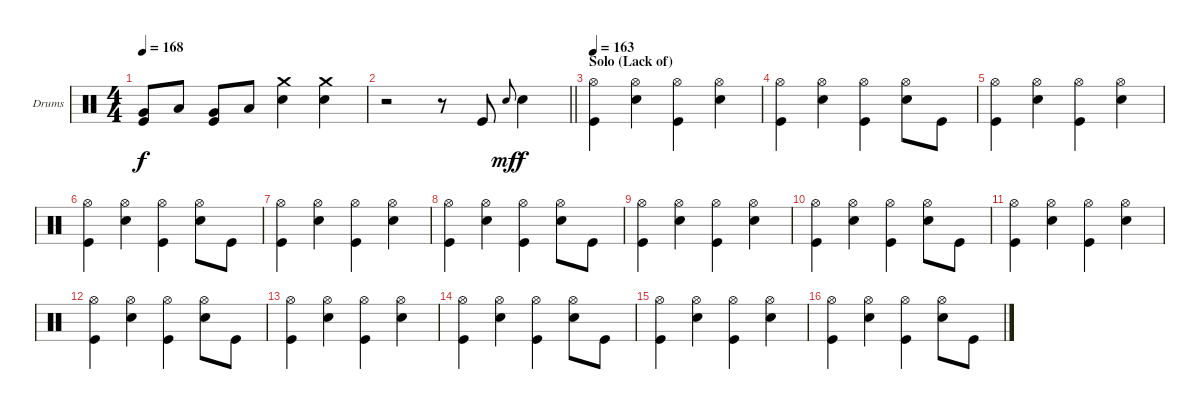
\bracketExtendMode groupsimilarinstruments
\firstSystemTrackNameOrientation horizontal
\otherSystemsTrackNameOrientation horizontal
\track ("Drumkit" "Drums") {instrument percussion}
\staff {score}
\articulation defaults
\ts (4 4)
\tempo 168
\clef neutral
\ks c
("Very Low Tom (hit)" "Kick (hit)").8{dy f} "Low Tom (hit)".8 ("Very Low Tom (hit)" "Kick (hit)").8 "Low Tom (hit)".8 ("Crash medium (hit)" "Snare (hit) 2").4 ("Crash medium (hit)" "Snare (hit) 2").4 |
\barLineRight lightlight
r.2 r.8 "Kick (hit)".8 "Snare (hit) 2".8{gr onbeat dy mf} "Snare (hit) 2".4{dy f} |
\section ("" "Solo (Lack of)")
\tempo 163
("Hi-Hat (open)" "Kick (hit)").4 ("Hi-Hat (open)" "Snare (hit) 2").4 ("Hi-Hat (open)" "Kick (hit)").4 ("Hi-Hat (open)" "Snare (hit) 2").4 |
("Hi-Hat (open)" "Kick (hit)").4 ("Hi-Hat (open)" "Snare (hit) 2").4 ("Hi-Hat (open)" "Kick (hit)").4 ("Hi-Hat (open)" "Snare (hit) 2").8 "Kick (hit)".8 |
("Hi-Hat (open)" "Kick (hit)").4 ("Hi-Hat (open)" "Snare (hit) 2").4 ("Hi-Hat (open)" "Kick (hit)").4 ("Hi-Hat (open)" "Snare (hit) 2").4 |
("Hi-Hat (open)" "Kick (hit)").4 ("Hi-Hat (open)" "Snare (hit) 2").4 ("Hi-Hat (open)" "Kick (hit)").4 ("Hi-Hat (open)" "Snare (hit) 2").8 "Kick (hit)".8 |
("Hi-Hat (open)" "Kick (hit)").4 ("Hi-Hat (open)" "Snare (hit) 2").4 ("Hi-Hat (open)" "Kick (hit)").4 ("Hi-Hat (open)" "Snare (hit) 2").4 |
("Hi-Hat (open)" "Kick (hit)").4 ("Hi-Hat (open)" "Snare (hit) 2").4 ("Hi-Hat (open)" "Kick (hit)").4 ("Hi-Hat (open)" "Snare (hit) 2").8 "Kick (hit)".8 |
("Hi-Hat (open)" "Kick (hit)").4 ("Hi-Hat (open)" "Snare (hit) 2").4 ("Hi-Hat (open)" "Kick (hit)").4 ("Hi-Hat (open)" "Snare (hit) 2").4 |
("Hi-Hat (open)" "Kick (hit)").4 ("Hi-Hat (open)" "Snare (hit) 2").4 ("Hi-Hat (open)" "Kick (hit)").4 ("Hi-Hat (open)" "Snare (hit) 2").8 "Kick (hit)".8 |
("Hi-Hat (open)" "Kick (hit)").4 ("Hi-Hat (open)" "Snare (hit) 2").4 ("Hi-Hat (open)" "Kick (hit)").4 ("Hi-Hat (open)" "Snare (hit) 2").4 |
("Hi-Hat (open)" "Kick (hit)").4 ("Hi-Hat (open)" "Snare (hit) 2").4 ("Hi-Hat (open)" "Kick (hit)").4 ("Hi-Hat (open)" "Snare (hit) 2").8 "Kick (hit)".8 |
("Hi-Hat (open)" "Kick (hit)").4 ("Hi-Hat (open)" "Snare (hit) 2").4 ("Hi-Hat (open)" "Kick (hit)").4 ("Hi-Hat (open)" "Snare (hit) 2").4 |
("Hi-Hat (open)" "Kick (hit)").4 ("Hi-Hat (open)" "Snare (hit) 2").4 ("Hi-Hat (open)" "Kick (hit)").4 ("Hi-Hat (open)" "Snare (hit) 2").8 "Kick (hit)".8 |
("Hi-Hat (open)" "Kick (hit)").4 ("Hi-Hat (open)" "Snare (hit) 2").4 ("Hi-Hat (open)" "Kick (hit)").4 ("Hi-Hat (open)" "Snare (hit) 2").4 |
("Hi-Hat (open)" "Kick (hit)").4 ("Hi-Hat (open)" "Snare (hit) 2").4 ("Hi-Hat (open)" "Kick (hit)").4 ("Hi-Hat (open)" "Snare (hit) 2").8 "Kick (hit)".8
